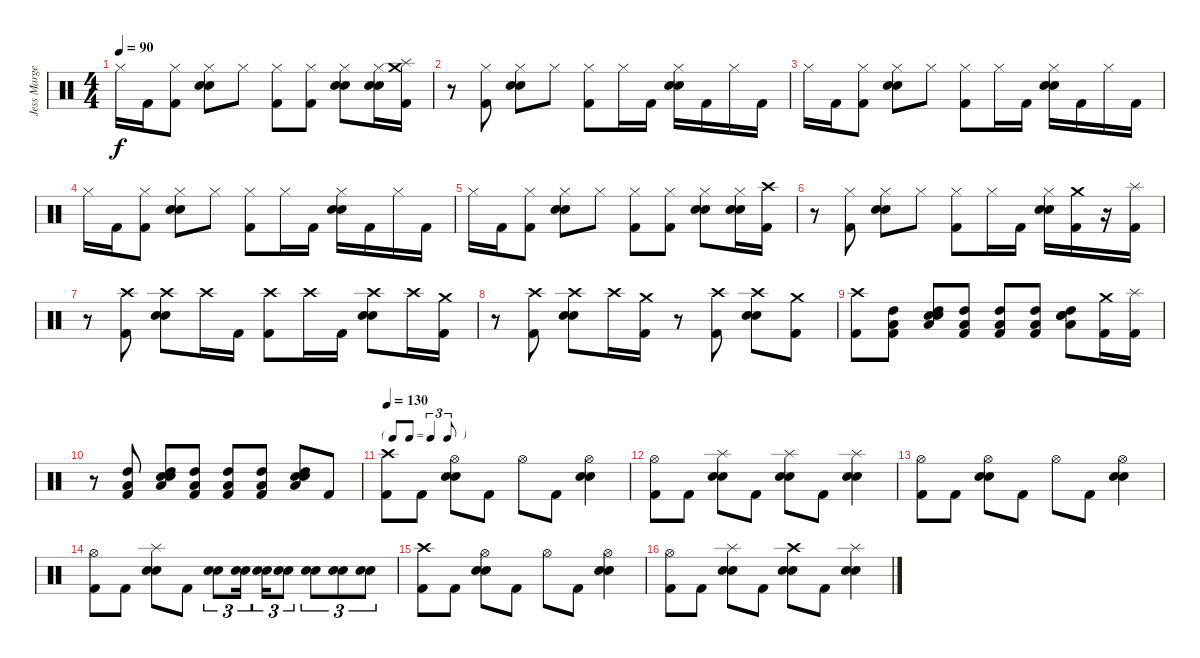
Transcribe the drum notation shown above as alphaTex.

\track ("Jess Margera" "Jess Marge") {instrument percussion}
\staff {score}
\articulation defaults
\ts (4 4)
\tempo 90
\clef neutral
\ks c "Hi-Hat (closed)".16{dy f} "Kick (hit) 2".16
("Hi-Hat (closed)" "Kick (hit) 2").8 ("Hi-Hat (closed)" "Electric Snare (hit)" "Snare (hit) 2").8 "Hi-Hat (closed)".8 ("Hi-Hat (closed)" "Kick (hit) 2").8 ("Hi-Hat (closed)" "Kick (hit) 2").8 ("Hi-Hat (closed)" "Electric Snare (hit)" "Snare (hit) 2").8 ("Hi-Hat (closed)" "Electric Snare (hit)" "Snare (hit) 2").16 ("Splash (hit)" "Crash medium (hit)" "Kick (hit) 2").16 |
r.8 ("Hi-Hat (closed)" "Kick (hit) 2").8 ("Hi-Hat (closed)" "Snare (hit) 2" "Electric Snare (hit)").8 "Hi-Hat (closed)".8 ("Hi-Hat (closed)" "Kick (hit) 2").8 "Hi-Hat (closed)".16 "Kick (hit) 2".16 ("Hi-Hat (closed)" "Snare (hit) 2" "Electric Snare (hit)").16 "Kick (hit) 2".16 "Hi-Hat (closed)".16 "Kick (hit) 2".16 |
"Hi-Hat (closed)".16 "Kick (hit) 2".16 ("Hi-Hat (closed)" "Kick (hit) 2").8 ("Hi-Hat (closed)" "Snare (hit) 2" "Electric Snare (hit)").8 "Hi-Hat (closed)".8 ("Hi-Hat (closed)" "Kick (hit) 2").8 "Hi-Hat (closed)".16 "Kick (hit) 2".16 ("Hi-Hat (closed)" "Snare (hit) 2" "Electric Snare (hit)").16 "Kick (hit) 2".16 "Hi-Hat (closed)".16 "Kick (hit) 2".16 |
"Hi-Hat (closed)".16 "Kick (hit) 2".16 ("Hi-Hat (closed)" "Kick (hit) 2").8 ("Hi-Hat (closed)" "Snare (hit) 2" "Electric Snare (hit)").8 "Hi-Hat (closed)".8 ("Hi-Hat (closed)" "Kick (hit) 2").8 "Hi-Hat (closed)".16 "Kick (hit) 2".16 ("Hi-Hat (closed)" "Snare (hit) 2" "Electric Snare (hit)").16 "Kick (hit) 2".16 "Hi-Hat (closed)".16 "Kick (hit) 2".16 |
"Hi-Hat (closed)".16 "Kick (hit) 2".16 ("Hi-Hat (closed)" "Kick (hit) 2").8 ("Hi-Hat (closed)" "Snare (hit) 2" "Electric Snare (hit)").8 "Hi-Hat (closed)".8 ("Hi-Hat (closed)" "Kick (hit) 2").8 ("Hi-Hat (closed)" "Kick (hit) 2").8 ("Hi-Hat (closed)" "Snare (hit) 2" "Electric Snare (hit)").8 ("Hi-Hat (closed)" "Snare (hit) 2" "Electric Snare (hit)").16 ("Crash high (hit)" "Kick (hit) 2").16 |
r.8 ("Hi-Hat (closed)" "Kick (hit) 2").8 ("Hi-Hat (closed)" "Snare (hit) 2" "Electric Snare (hit)").8 "Hi-Hat (closed)".8 ("Hi-Hat (closed)" "Kick (hit) 2").8 "Hi-Hat (closed)".16 "Kick (hit) 2".16 ("Hi-Hat (closed)" "Snare (hit) 2" "Electric Snare (hit)").16 ("Crash medium (hit)" "Kick (hit) 2").16 r.16 ("Splash (hit)" "Kick (hit) 2").16 |
r.8 ("Crash high (hit)" "Kick (hit) 2").8 ("Crash high (hit)" "Snare (hit) 2" "Electric Snare (hit)").8 "Crash high (hit)".16 "Kick (hit) 2".16 ("Crash high (hit)" "Kick (hit) 2").8 "Crash high (hit)".16 "Kick (hit) 2".16 ("Crash high (hit)" "Snare (hit) 2" "Electric Snare (hit)").8 "Crash high (hit)".16 ("Crash medium (hit)" "Kick (hit) 2").16 |
r.8 ("Crash high (hit)" "Kick (hit) 2").8 ("Crash high (hit)" "Electric Snare (hit)" "Snare (hit) 2").8 "Crash high (hit)".16 ("Crash medium (hit)" "Kick (hit) 2").16 r.8 ("Crash high (hit)" "Kick (hit) 2").8 ("Crash high (hit)" "Electric Snare (hit)" "Snare (hit) 2").8 ("Crash medium (hit)" "Kick (hit) 2").8 |
("Crash high (hit)" "Kick (hit) 2").8 ("Kick (hit) 2" "High Tom (hit)" "Low Tom (hit)").8 ("Electric Snare (hit)" "High Tom (hit)" "Low Tom (hit)" "Snare (hit) 2").8 ("Kick (hit) 2" "High Tom (hit)" "Low Tom (hit)").8 ("Kick (hit) 2" "High Tom (hit)" "Low Tom (hit)").8 ("Kick (hit) 2" "High Tom (hit)" "Low Tom (hit)").8 ("Electric Snare (hit)" "High Tom (hit)" "Low Tom (hit)" "Snare (hit) 2").8 ("Crash medium (hit)" "Kick (hit) 2").16 ("Splash (hit)" "Kick (hit) 2").16 |
r.8 ("Kick (hit) 2" "High Tom (hit)" "Low Tom (hit)").8 ("Electric Snare (hit)" "High Tom (hit)" "Low Tom (hit)" "Snare (hit) 2").8 ("Kick (hit) 2" "High Tom (hit)" "Low Tom (hit)").8 ("Kick (hit) 2" "High Tom (hit)" "Low Tom (hit)").8 ("Kick (hit) 2" "High Tom (hit)" "Low Tom (hit)").8 ("Electric Snare (hit)" "High Tom (hit)" "Low Tom (hit)" "Snare (hit) 2").8 "Kick (hit) 2".8 |
\tf triplet8th
\tempo 130
("Crash high (hit)" "Kick (hit) 2").8 "Kick (hit) 2".8 ("Snare (hit) 2" "Hi-Hat (open)" "Electric Snare (hit)").8 "Kick (hit) 2".8 "Hi-Hat (open)".8 "Kick (hit) 2".8 ("Hi-Hat (open)" "Snare (hit) 2" "Electric Snare (hit)").4 |
("Hi-Hat (open)" "Kick (hit) 2").8 "Kick (hit) 2".8 ("Splash (hit)" "Snare (hit) 2" "Electric Snare (hit)").8 "Kick (hit) 2".8 ("Splash (hit)" "Snare (hit) 2" "Electric Snare (hit)").8 "Kick (hit) 2".8 ("Splash (hit)" "Snare (hit) 2" "Electric Snare (hit)").4 |
("Hi-Hat (open)" "Kick (hit) 2").8 "Kick (hit) 2".8 ("Snare (hit) 2" "Hi-Hat (open)" "Electric Snare (hit)").8 "Kick (hit) 2".8 "Hi-Hat (open)".8 "Kick (hit) 2".8 ("Hi-Hat (open)" "Snare (hit) 2" "Electric Snare (hit)").4 |
("Hi-Hat (open)" "Kick (hit) 2").8 "Kick (hit) 2".8 ("Splash (hit)" "Snare (hit) 2" "Electric Snare (hit)").8 "Kick (hit) 2".8 ("Snare (hit) 2" "Electric Snare (hit)").8{tu (3 2)} ("Snare (hit) 2" "Electric Snare (hit)").16{tu (3 2) beam splitsecondary} ("Snare (hit) 2" "Electric Snare (hit)").16{tu (3 2)} ("Snare (hit) 2" "Electric Snare (hit)").8{tu (3 2)} ("Snare (hit) 2" "Electric Snare (hit)").8{tu (3 2)} ("Snare (hit) 2" "Electric Snare (hit)").8{tu (3 2)} ("Snare (hit) 2" "Electric Snare (hit)").8{tu (3 2)} |
("Crash high (hit)" "Kick (hit) 2").8 "Kick (hit) 2".8 ("Snare (hit) 2" "Hi-Hat (open)" "Electric Snare (hit)").8 "Kick (hit) 2".8 "Hi-Hat (open)".8 "Kick (hit) 2".8 ("Hi-Hat (open)" "Snare (hit) 2" "Electric Snare (hit)").4 |
("Hi-Hat (open)" "Kick (hit) 2").8 "Kick (hit) 2".8 ("Splash (hit)" "Snare (hit) 2" "Electric Snare (hit)").8 "Kick (hit) 2".8 ("Crash high (hit)" "Snare (hit) 2" "Electric Snare (hit)").8 "Kick (hit) 2".8 ("Splash (hit)" "Snare (hit) 2" "Electric Snare (hit)").4
